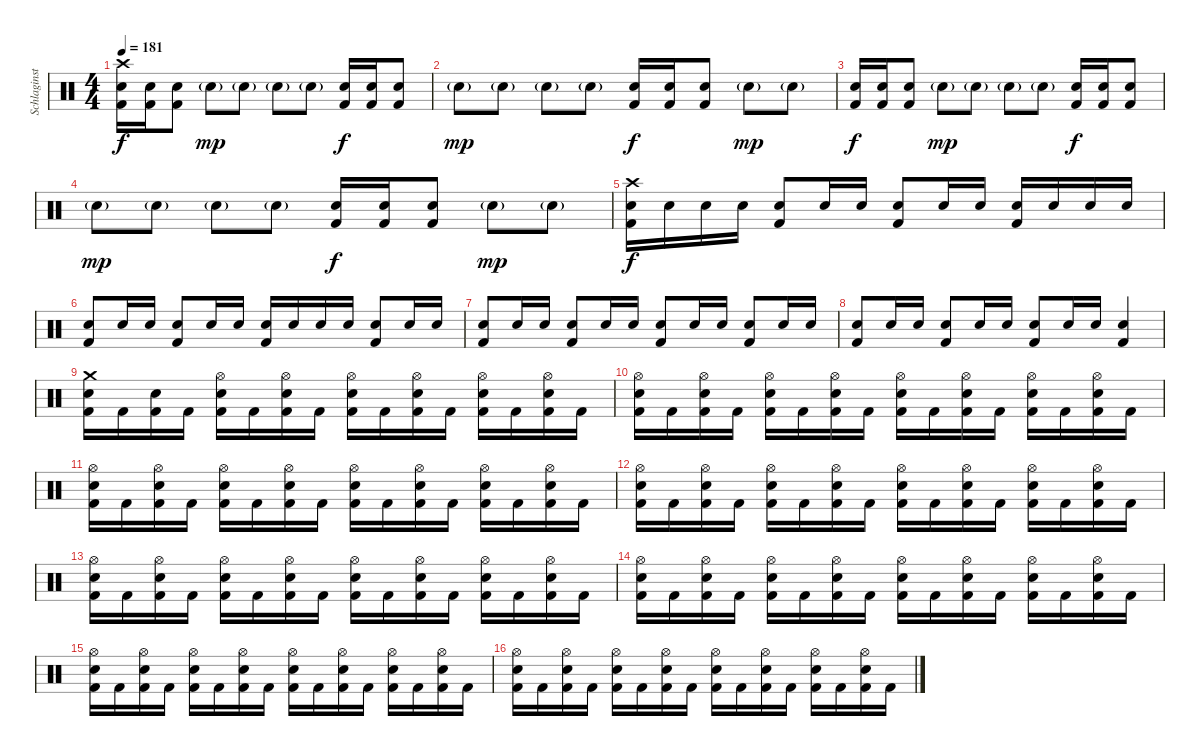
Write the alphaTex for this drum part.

\track ("Schlaginstrumente - Auswahl" "Schlaginst") {instrument percussion}
\staff {score}
\articulation defaults
\ts (4 4)
\tempo 181
\clef neutral
\ks c
("Crash high (hit)" "Snare (hit) 2" "Kick (hit) 2").16{dy f} ("Snare (hit) 2" "Kick (hit) 2").16 ("Snare (hit) 2" "Kick (hit) 2").8 "Snare (hit) 2"{g}.8{dy mp} "Snare (hit) 2"{g}.8 "Snare (hit) 2"{g}.8 "Snare (hit) 2"{g}.8 ("Snare (hit) 2" "Kick (hit) 2").16{dy f} ("Snare (hit) 2" "Kick (hit) 2").16 ("Snare (hit) 2" "Kick (hit) 2").8 |
"Snare (hit) 2"{g}.8{dy mp} "Snare (hit) 2"{g}.8 "Snare (hit) 2"{g}.8 "Snare (hit) 2"{g}.8 ("Snare (hit) 2" "Kick (hit) 2").16{dy f} ("Snare (hit) 2" "Kick (hit) 2").16 ("Snare (hit) 2" "Kick (hit) 2").8 "Snare (hit) 2"{g}.8{dy mp} "Snare (hit) 2"{g}.8 |
("Snare (hit) 2" "Kick (hit) 2").16{dy f} ("Snare (hit) 2" "Kick (hit) 2").16 ("Snare (hit) 2" "Kick (hit) 2").8 "Snare (hit) 2"{g}.8{dy mp} "Snare (hit) 2"{g}.8 "Snare (hit) 2"{g}.8 "Snare (hit) 2"{g}.8 ("Snare (hit) 2" "Kick (hit) 2").16{dy f} ("Snare (hit) 2" "Kick (hit) 2").16 ("Snare (hit) 2" "Kick (hit) 2").8 |
"Snare (hit) 2"{g}.8{dy mp} "Snare (hit) 2"{g}.8 "Snare (hit) 2"{g}.8 "Snare (hit) 2"{g}.8 ("Snare (hit) 2" "Kick (hit) 2").16{dy f} ("Snare (hit) 2" "Kick (hit) 2").16 ("Snare (hit) 2" "Kick (hit) 2").8 "Snare (hit) 2"{g}.8{dy mp} "Snare (hit) 2"{g}.8 |
("Crash high (hit)" "Snare (hit) 2" "Kick (hit) 2").16{dy f} "Snare (hit) 2".16 "Snare (hit) 2".16 "Snare (hit) 2".16 ("Snare (hit) 2" "Kick (hit) 2").8 "Snare (hit) 2".16 "Snare (hit) 2".16 ("Snare (hit) 2" "Kick (hit) 2").8 "Snare (hit) 2".16 "Snare (hit) 2".16 ("Snare (hit) 2" "Kick (hit) 2").16 "Snare (hit) 2".16 "Snare (hit) 2".16 "Snare (hit) 2".16 |
("Snare (hit) 2" "Kick (hit) 2").8 "Snare (hit) 2".16 "Snare (hit) 2".16 ("Snare (hit) 2" "Kick (hit) 2").8 "Snare (hit) 2".16 "Snare (hit) 2".16 ("Snare (hit) 2" "Kick (hit) 2").16 "Snare (hit) 2".16 "Snare (hit) 2".16 "Snare (hit) 2".16 ("Snare (hit) 2" "Kick (hit) 2").8 "Snare (hit) 2".16 "Snare (hit) 2".16 |
("Snare (hit) 2" "Kick (hit) 2").8 "Snare (hit) 2".16 "Snare (hit) 2".16 ("Snare (hit) 2" "Kick (hit) 2").8 "Snare (hit) 2".16 "Snare (hit) 2".16 ("Snare (hit) 2" "Kick (hit) 2").8 "Snare (hit) 2".16 "Snare (hit) 2".16 ("Snare (hit) 2" "Kick (hit) 2").8 "Snare (hit) 2".16 "Snare (hit) 2".16 |
("Snare (hit) 2" "Kick (hit) 2").8 "Snare (hit) 2".16 "Snare (hit) 2".16 ("Snare (hit) 2" "Kick (hit) 2").8 "Snare (hit) 2".16 "Snare (hit) 2".16 ("Snare (hit) 2" "Kick (hit) 2").8 "Snare (hit) 2".16 "Snare (hit) 2".16 ("Snare (hit) 2" "Kick (hit) 2").4 |
("Crash medium (hit)" "Snare (hit) 2" "Kick (hit) 2").16 "Kick (hit) 2".16 ("Snare (hit) 2" "Kick (hit) 2").16 "Kick (hit) 2".16 ("Hi-Hat (open)" "Snare (hit) 2" "Kick (hit) 2").16 "Kick (hit) 2".16 ("Hi-Hat (open)" "Snare (hit) 2" "Kick (hit) 2").16 "Kick (hit) 2".16 ("Hi-Hat (open)" "Snare (hit) 2" "Kick (hit) 2").16 "Kick (hit) 2".16 ("Hi-Hat (open)" "Snare (hit) 2" "Kick (hit) 2").16 "Kick (hit) 2".16 ("Hi-Hat (open)" "Snare (hit) 2" "Kick (hit) 2").16 "Kick (hit) 2".16 ("Hi-Hat (open)" "Snare (hit) 2" "Kick (hit) 2").16 "Kick (hit) 2".16 |
("Hi-Hat (open)" "Snare (hit) 2" "Kick (hit) 2").16 "Kick (hit) 2".16 ("Hi-Hat (open)" "Snare (hit) 2" "Kick (hit) 2").16 "Kick (hit) 2".16 ("Hi-Hat (open)" "Snare (hit) 2" "Kick (hit) 2").16 "Kick (hit) 2".16 ("Hi-Hat (open)" "Snare (hit) 2" "Kick (hit) 2").16 "Kick (hit) 2".16 ("Hi-Hat (open)" "Snare (hit) 2" "Kick (hit) 2").16 "Kick (hit) 2".16 ("Hi-Hat (open)" "Snare (hit) 2" "Kick (hit) 2").16 "Kick (hit) 2".16 ("Hi-Hat (open)" "Snare (hit) 2" "Kick (hit) 2").16 "Kick (hit) 2".16 ("Hi-Hat (open)" "Snare (hit) 2" "Kick (hit) 2").16 "Kick (hit) 2".16 |
("Hi-Hat (open)" "Snare (hit) 2" "Kick (hit) 2").16 "Kick (hit) 2".16 ("Hi-Hat (open)" "Snare (hit) 2" "Kick (hit) 2").16 "Kick (hit) 2".16 ("Hi-Hat (open)" "Snare (hit) 2" "Kick (hit) 2").16 "Kick (hit) 2".16 ("Hi-Hat (open)" "Snare (hit) 2" "Kick (hit) 2").16 "Kick (hit) 2".16 ("Hi-Hat (open)" "Snare (hit) 2" "Kick (hit) 2").16 "Kick (hit) 2".16 ("Hi-Hat (open)" "Snare (hit) 2" "Kick (hit) 2").16 "Kick (hit) 2".16 ("Hi-Hat (open)" "Snare (hit) 2" "Kick (hit) 2").16 "Kick (hit) 2".16 ("Hi-Hat (open)" "Snare (hit) 2" "Kick (hit) 2").16 "Kick (hit) 2".16 |
("Hi-Hat (open)" "Snare (hit) 2" "Kick (hit) 2").16 "Kick (hit) 2".16 ("Hi-Hat (open)" "Snare (hit) 2" "Kick (hit) 2").16 "Kick (hit) 2".16 ("Hi-Hat (open)" "Snare (hit) 2" "Kick (hit) 2").16 "Kick (hit) 2".16 ("Hi-Hat (open)" "Snare (hit) 2" "Kick (hit) 2").16 "Kick (hit) 2".16 ("Hi-Hat (open)" "Snare (hit) 2" "Kick (hit) 2").16 "Kick (hit) 2".16 ("Hi-Hat (open)" "Snare (hit) 2" "Kick (hit) 2").16 "Kick (hit) 2".16 ("Hi-Hat (open)" "Snare (hit) 2" "Kick (hit) 2").16 "Kick (hit) 2".16 ("Hi-Hat (open)" "Snare (hit) 2" "Kick (hit) 2").16 "Kick (hit) 2".16 |
("Hi-Hat (open)" "Snare (hit) 2" "Kick (hit) 2").16 "Kick (hit) 2".16 ("Hi-Hat (open)" "Snare (hit) 2" "Kick (hit) 2").16 "Kick (hit) 2".16 ("Hi-Hat (open)" "Snare (hit) 2" "Kick (hit) 2").16 "Kick (hit) 2".16 ("Hi-Hat (open)" "Snare (hit) 2" "Kick (hit) 2").16 "Kick (hit) 2".16 ("Hi-Hat (open)" "Snare (hit) 2" "Kick (hit) 2").16 "Kick (hit) 2".16 ("Hi-Hat (open)" "Snare (hit) 2" "Kick (hit) 2").16 "Kick (hit) 2".16 ("Hi-Hat (open)" "Snare (hit) 2" "Kick (hit) 2").16 "Kick (hit) 2".16 ("Hi-Hat (open)" "Snare (hit) 2" "Kick (hit) 2").16 "Kick (hit) 2".16 |
("Hi-Hat (open)" "Snare (hit) 2" "Kick (hit) 2").16 "Kick (hit) 2".16 ("Hi-Hat (open)" "Snare (hit) 2" "Kick (hit) 2").16 "Kick (hit) 2".16 ("Hi-Hat (open)" "Snare (hit) 2" "Kick (hit) 2").16 "Kick (hit) 2".16 ("Hi-Hat (open)" "Snare (hit) 2" "Kick (hit) 2").16 "Kick (hit) 2".16 ("Hi-Hat (open)" "Snare (hit) 2" "Kick (hit) 2").16 "Kick (hit) 2".16 ("Hi-Hat (open)" "Snare (hit) 2" "Kick (hit) 2").16 "Kick (hit) 2".16 ("Hi-Hat (open)" "Snare (hit) 2" "Kick (hit) 2").16 "Kick (hit) 2".16 ("Hi-Hat (open)" "Snare (hit) 2" "Kick (hit) 2").16 "Kick (hit) 2".16 |
("Hi-Hat (open)" "Snare (hit) 2" "Kick (hit) 2").16 "Kick (hit) 2".16 ("Hi-Hat (open)" "Snare (hit) 2" "Kick (hit) 2").16 "Kick (hit) 2".16 ("Hi-Hat (open)" "Snare (hit) 2" "Kick (hit) 2").16 "Kick (hit) 2".16 ("Hi-Hat (open)" "Snare (hit) 2" "Kick (hit) 2").16 "Kick (hit) 2".16 ("Hi-Hat (open)" "Snare (hit) 2" "Kick (hit) 2").16 "Kick (hit) 2".16 ("Hi-Hat (open)" "Snare (hit) 2" "Kick (hit) 2").16 "Kick (hit) 2".16 ("Hi-Hat (open)" "Snare (hit) 2" "Kick (hit) 2").16 "Kick (hit) 2".16 ("Hi-Hat (open)" "Snare (hit) 2" "Kick (hit) 2").16 "Kick (hit) 2".16 |
("Hi-Hat (open)" "Snare (hit) 2" "Kick (hit) 2").16 "Kick (hit) 2".16 ("Hi-Hat (open)" "Snare (hit) 2" "Kick (hit) 2").16 "Kick (hit) 2".16 ("Hi-Hat (open)" "Snare (hit) 2" "Kick (hit) 2").16 "Kick (hit) 2".16 ("Hi-Hat (open)" "Snare (hit) 2" "Kick (hit) 2").16 "Kick (hit) 2".16 ("Hi-Hat (open)" "Snare (hit) 2" "Kick (hit) 2").16 "Kick (hit) 2".16 ("Hi-Hat (open)" "Snare (hit) 2" "Kick (hit) 2").16 "Kick (hit) 2".16 ("Hi-Hat (open)" "Snare (hit) 2" "Kick (hit) 2").16 "Kick (hit) 2".16 ("Hi-Hat (open)" "Snare (hit) 2" "Kick (hit) 2").16 "Kick (hit) 2".16
